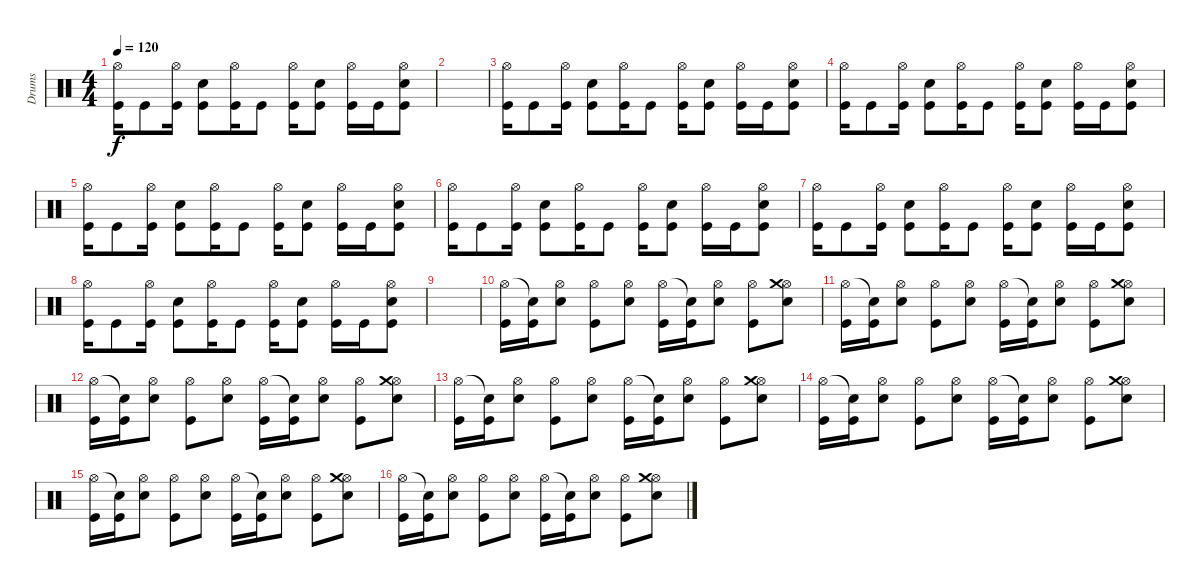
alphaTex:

\track ("Drums" "Drums") {instrument percussion}
\staff {score}
\articulation defaults
\ts (4 4)
\tempo 120
\clef neutral
\ks c
("Hi-Hat (open)" "Kick (hit)").16{dy f} "Kick (hit)".8 ("Hi-Hat (open)" "Kick (hit)").16 ("Electric Snare (hit)" "Kick (hit)").8 ("Hi-Hat (open)" "Kick (hit)").16 "Kick (hit)".8 ("Hi-Hat (open)" "Kick (hit)").16 ("Electric Snare (hit)" "Kick (hit)").8 ("Hi-Hat (open)" "Kick (hit)").16 "Kick (hit)".16 ("Hi-Hat (open)" "Electric Snare (hit)" "Kick (hit)").8 |
|
("Hi-Hat (open)" "Kick (hit)").16 "Kick (hit)".8 ("Hi-Hat (open)" "Kick (hit)").16 ("Electric Snare (hit)" "Kick (hit)").8 ("Hi-Hat (open)" "Kick (hit)").16 "Kick (hit)".8 ("Hi-Hat (open)" "Kick (hit)").16 ("Electric Snare (hit)" "Kick (hit)").8 ("Hi-Hat (open)" "Kick (hit)").16 "Kick (hit)".16 ("Hi-Hat (open)" "Electric Snare (hit)" "Kick (hit)").8 |
("Hi-Hat (open)" "Kick (hit)").16 "Kick (hit)".8 ("Hi-Hat (open)" "Kick (hit)").16 ("Electric Snare (hit)" "Kick (hit)").8 ("Hi-Hat (open)" "Kick (hit)").16 "Kick (hit)".8 ("Hi-Hat (open)" "Kick (hit)").16 ("Electric Snare (hit)" "Kick (hit)").8 ("Hi-Hat (open)" "Kick (hit)").16 "Kick (hit)".16 ("Hi-Hat (open)" "Electric Snare (hit)" "Kick (hit)").8 |
("Hi-Hat (open)" "Kick (hit)").16 "Kick (hit)".8 ("Hi-Hat (open)" "Kick (hit)").16 ("Electric Snare (hit)" "Kick (hit)").8 ("Hi-Hat (open)" "Kick (hit)").16 "Kick (hit)".8 ("Hi-Hat (open)" "Kick (hit)").16 ("Electric Snare (hit)" "Kick (hit)").8 ("Hi-Hat (open)" "Kick (hit)").16 "Kick (hit)".16 ("Hi-Hat (open)" "Electric Snare (hit)" "Kick (hit)").8 |
("Hi-Hat (open)" "Kick (hit)").16 "Kick (hit)".8 ("Hi-Hat (open)" "Kick (hit)").16 ("Electric Snare (hit)" "Kick (hit)").8 ("Hi-Hat (open)" "Kick (hit)").16 "Kick (hit)".8 ("Hi-Hat (open)" "Kick (hit)").16 ("Electric Snare (hit)" "Kick (hit)").8 ("Hi-Hat (open)" "Kick (hit)").16 "Kick (hit)".16 ("Hi-Hat (open)" "Electric Snare (hit)" "Kick (hit)").8 |
("Hi-Hat (open)" "Kick (hit)").16 "Kick (hit)".8 ("Hi-Hat (open)" "Kick (hit)").16 ("Electric Snare (hit)" "Kick (hit)").8 ("Hi-Hat (open)" "Kick (hit)").16 "Kick (hit)".8 ("Hi-Hat (open)" "Kick (hit)").16 ("Electric Snare (hit)" "Kick (hit)").8 ("Hi-Hat (open)" "Kick (hit)").16 "Kick (hit)".16 ("Hi-Hat (open)" "Electric Snare (hit)" "Kick (hit)").8 |
("Hi-Hat (open)" "Kick (hit)").16 "Kick (hit)".8 ("Hi-Hat (open)" "Kick (hit)").16 ("Electric Snare (hit)" "Kick (hit)").8 ("Hi-Hat (open)" "Kick (hit)").16 "Kick (hit)".8 ("Hi-Hat (open)" "Kick (hit)").16 ("Electric Snare (hit)" "Kick (hit)").8 ("Hi-Hat (open)" "Kick (hit)").16 "Kick (hit)".16 ("Hi-Hat (open)" "Electric Snare (hit)" "Kick (hit)").8 |
|
("Hi-Hat (open)" "Kick (hit)").16 ("Snare (hit)"{t} "Kick (hit)").16 ("Hi-Hat (open)" "Electric Snare (hit)").8 ("Hi-Hat (open)" "Kick (hit)").8 ("Hi-Hat (open)" "Electric Snare (hit)").8 ("Hi-Hat (open)" "Kick (hit)").16 ("Snare (hit)"{t} "Kick (hit)").16 ("Hi-Hat (open)" "Electric Snare (hit)").8 ("Hi-Hat (open)" "Kick (hit)").8 ("Hi-Hat (open)" "Crash medium (hit)" "Electric Snare (hit)").8 |
("Hi-Hat (open)" "Kick (hit)").16 ("Snare (hit)"{t} "Kick (hit)").16 ("Hi-Hat (open)" "Electric Snare (hit)").8 ("Hi-Hat (open)" "Kick (hit)").8 ("Hi-Hat (open)" "Electric Snare (hit)").8 ("Hi-Hat (open)" "Kick (hit)").16 ("Snare (hit)"{t} "Kick (hit)").16 ("Hi-Hat (open)" "Electric Snare (hit)").8 ("Hi-Hat (open)" "Kick (hit)").8 ("Hi-Hat (open)" "Crash medium (hit)" "Electric Snare (hit)").8 |
("Hi-Hat (open)" "Kick (hit)").16 ("Snare (hit)"{t} "Kick (hit)").16 ("Hi-Hat (open)" "Electric Snare (hit)").8 ("Hi-Hat (open)" "Kick (hit)").8 ("Hi-Hat (open)" "Electric Snare (hit)").8 ("Hi-Hat (open)" "Kick (hit)").16 ("Snare (hit)"{t} "Kick (hit)").16 ("Hi-Hat (open)" "Electric Snare (hit)").8 ("Hi-Hat (open)" "Kick (hit)").8 ("Hi-Hat (open)" "Crash medium (hit)" "Electric Snare (hit)").8 |
("Hi-Hat (open)" "Kick (hit)").16 ("Snare (hit)"{t} "Kick (hit)").16 ("Hi-Hat (open)" "Electric Snare (hit)").8 ("Hi-Hat (open)" "Kick (hit)").8 ("Hi-Hat (open)" "Electric Snare (hit)").8 ("Hi-Hat (open)" "Kick (hit)").16 ("Snare (hit)"{t} "Kick (hit)").16 ("Hi-Hat (open)" "Electric Snare (hit)").8 ("Hi-Hat (open)" "Kick (hit)").8 ("Hi-Hat (open)" "Crash medium (hit)" "Electric Snare (hit)").8 |
("Hi-Hat (open)" "Kick (hit)").16 ("Snare (hit)"{t} "Kick (hit)").16 ("Hi-Hat (open)" "Electric Snare (hit)").8 ("Hi-Hat (open)" "Kick (hit)").8 ("Hi-Hat (open)" "Electric Snare (hit)").8 ("Hi-Hat (open)" "Kick (hit)").16 ("Snare (hit)"{t} "Kick (hit)").16 ("Hi-Hat (open)" "Electric Snare (hit)").8 ("Hi-Hat (open)" "Kick (hit)").8 ("Hi-Hat (open)" "Crash medium (hit)" "Electric Snare (hit)").8 |
("Hi-Hat (open)" "Kick (hit)").16 ("Snare (hit)"{t} "Kick (hit)").16 ("Hi-Hat (open)" "Electric Snare (hit)").8 ("Hi-Hat (open)" "Kick (hit)").8 ("Hi-Hat (open)" "Electric Snare (hit)").8 ("Hi-Hat (open)" "Kick (hit)").16 ("Snare (hit)"{t} "Kick (hit)").16 ("Hi-Hat (open)" "Electric Snare (hit)").8 ("Hi-Hat (open)" "Kick (hit)").8 ("Hi-Hat (open)" "Crash medium (hit)" "Electric Snare (hit)").8 |
("Hi-Hat (open)" "Kick (hit)").16 ("Snare (hit)"{t} "Kick (hit)").16 ("Hi-Hat (open)" "Electric Snare (hit)").8 ("Hi-Hat (open)" "Kick (hit)").8 ("Hi-Hat (open)" "Electric Snare (hit)").8 ("Hi-Hat (open)" "Kick (hit)").16 ("Snare (hit)"{t} "Kick (hit)").16 ("Hi-Hat (open)" "Electric Snare (hit)").8 ("Hi-Hat (open)" "Kick (hit)").8 ("Hi-Hat (open)" "Crash medium (hit)" "Electric Snare (hit)").8
